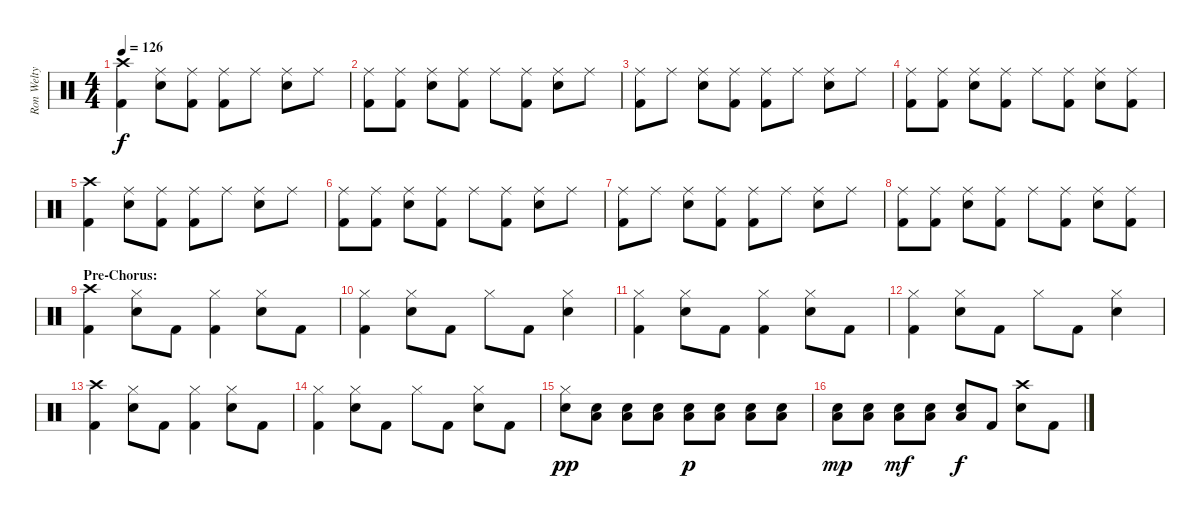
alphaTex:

\track ("Ron Welty - Drums" "Ron Welty ") {instrument percussion}
\staff {score}
\articulation defaults
\ts (4 4)
\tempo 126
\clef neutral
\ks c
("Crash high (hit)" "Kick (hit) 2").4{dy f} ("Ride (middle)" "Snare (hit) 2").8 ("Ride (middle)" "Kick (hit) 2").8 ("Ride (middle)" "Kick (hit) 2").8 "Ride (middle)".8 ("Ride (middle)" "Snare (hit) 2").8 "Ride (middle)".8 |
("Ride (middle)" "Kick (hit) 2").8 ("Ride (middle)" "Kick (hit) 2").8 ("Ride (middle)" "Snare (hit) 2").8 ("Ride (middle)" "Kick (hit) 2").8 "Ride (middle)".8 ("Ride (middle)" "Kick (hit) 2").8 ("Ride (middle)" "Snare (hit) 2").8 "Ride (middle)".8 |
("Ride (middle)" "Kick (hit) 2").8 "Ride (middle)".8 ("Ride (middle)" "Snare (hit) 2").8 ("Ride (middle)" "Kick (hit) 2").8 ("Ride (middle)" "Kick (hit) 2").8 "Ride (middle)".8 ("Ride (middle)" "Snare (hit) 2").8 "Ride (middle)".8 |
("Ride (middle)" "Kick (hit) 2").8 ("Ride (middle)" "Kick (hit) 2").8 ("Ride (middle)" "Snare (hit) 2").8 ("Ride (middle)" "Kick (hit) 2").8 "Ride (middle)".8 ("Ride (middle)" "Kick (hit) 2").8 ("Ride (middle)" "Snare (hit) 2").8 ("Ride (middle)" "Kick (hit) 2").8 |
("Crash high (hit)" "Kick (hit) 2").4 ("Ride (middle)" "Snare (hit) 2").8 ("Ride (middle)" "Kick (hit) 2").8 ("Ride (middle)" "Kick (hit) 2").8 "Ride (middle)".8 ("Ride (middle)" "Snare (hit) 2").8 "Ride (middle)".8 |
("Ride (middle)" "Kick (hit) 2").8 ("Ride (middle)" "Kick (hit) 2").8 ("Ride (middle)" "Snare (hit) 2").8 ("Ride (middle)" "Kick (hit) 2").8 "Ride (middle)".8 ("Ride (middle)" "Kick (hit) 2").8 ("Ride (middle)" "Snare (hit) 2").8 "Ride (middle)".8 |
("Ride (middle)" "Kick (hit) 2").8 "Ride (middle)".8 ("Ride (middle)" "Snare (hit) 2").8 ("Ride (middle)" "Kick (hit) 2").8 ("Ride (middle)" "Kick (hit) 2").8 "Ride (middle)".8 ("Ride (middle)" "Snare (hit) 2").8 "Ride (middle)".8 |
("Ride (middle)" "Kick (hit) 2").8 ("Ride (middle)" "Kick (hit) 2").8 ("Ride (middle)" "Snare (hit) 2").8 ("Ride (middle)" "Kick (hit) 2").8 "Ride (middle)".8 ("Ride (middle)" "Kick (hit) 2").8 ("Ride (middle)" "Snare (hit) 2").8 ("Ride (middle)" "Kick (hit) 2").8 |
\section ("" "Pre-Chorus:")
("Crash high (hit)" "Kick (hit) 2").4 ("Hi-Hat (closed)" "Snare (hit) 2").8 "Kick (hit) 2".8 ("Hi-Hat (closed)" "Kick (hit) 2").4 ("Hi-Hat (closed)" "Snare (hit) 2").8 "Kick (hit) 2".8 |
("Hi-Hat (closed)" "Kick (hit) 2").4 ("Hi-Hat (closed)" "Snare (hit) 2").8 "Kick (hit) 2".8 "Hi-Hat (closed)".8 "Kick (hit) 2".8 ("Hi-Hat (closed)" "Snare (hit) 2").4 |
("Hi-Hat (closed)" "Kick (hit) 2").4 ("Hi-Hat (closed)" "Snare (hit) 2").8 "Kick (hit) 2".8 ("Hi-Hat (closed)" "Kick (hit) 2").4 ("Hi-Hat (closed)" "Snare (hit) 2").8 "Kick (hit) 2".8 |
("Hi-Hat (closed)" "Kick (hit) 2").4 ("Hi-Hat (closed)" "Snare (hit) 2").8 "Kick (hit) 2".8 "Hi-Hat (closed)".8 "Kick (hit) 2".8 ("Hi-Hat (closed)" "Snare (hit) 2").4 |
("Crash high (hit)" "Kick (hit) 2").4 ("Hi-Hat (closed)" "Snare (hit) 2").8 "Kick (hit) 2".8 ("Hi-Hat (closed)" "Kick (hit) 2").4 ("Hi-Hat (closed)" "Snare (hit) 2").8 "Kick (hit) 2".8 |
("Hi-Hat (closed)" "Kick (hit) 2").4 ("Hi-Hat (closed)" "Snare (hit) 2").8 "Kick (hit) 2".8 "Hi-Hat (closed)".8 "Kick (hit) 2".8 ("Hi-Hat (closed)" "Snare (hit) 2").8 "Kick (hit) 2".8 |
("Hi-Hat (closed)" "Snare (hit) 2").8{dy pp} ("Snare (hit) 2" "Low Floor Tom (hit)").8 ("Snare (hit) 2" "Low Floor Tom (hit)").8 ("Snare (hit) 2" "Low Floor Tom (hit)").8 ("Snare (hit) 2" "Low Floor Tom (hit)").8{dy p} ("Snare (hit) 2" "Low Floor Tom (hit)").8 ("Snare (hit) 2" "Low Floor Tom (hit)").8 ("Snare (hit) 2" "Low Floor Tom (hit)").8 |
("Snare (hit) 2" "Low Floor Tom (hit)").8{dy mp} ("Snare (hit) 2" "Low Floor Tom (hit)").8 ("Snare (hit) 2" "Low Floor Tom (hit)").8{dy mf} ("Snare (hit) 2" "Low Floor Tom (hit)").8 ("Snare (hit) 2" "Low Floor Tom (hit)").8{dy f} "Kick (hit) 2".8 ("Crash high (hit)" "Snare (hit) 2").8 "Kick (hit) 2".8
